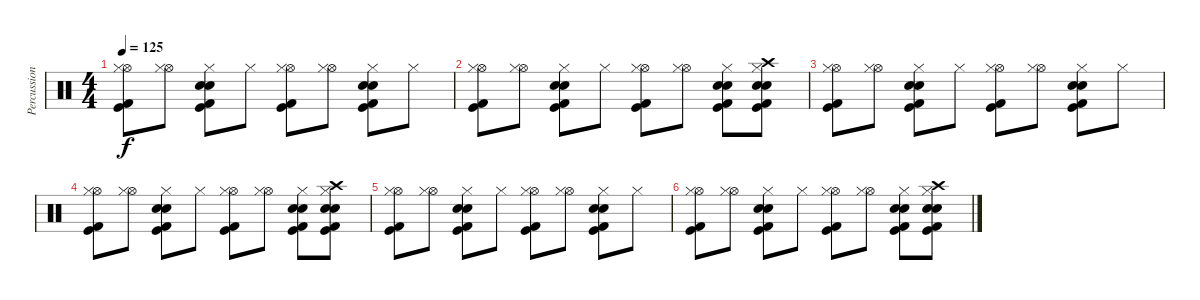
\track ("Percussion" "Percussion") {instrument percussion}
\staff {score}
\articulation defaults
\ts (4 4)
\tempo 125
\clef neutral
\ks c
("Hi-Hat (open)" "Kick (hit)" "Kick (hit) 2" "Hi-Hat (closed)").8{dy f} ("Hi-Hat (open)" "Hi-Hat (closed)").8 ("Electric Snare (hit)" "Electric Snare (hit)" "Kick (hit)" "Kick (hit) 2" "Hi-Hat (closed)").8 "Hi-Hat (closed)".8 ("Hi-Hat (open)" "Kick (hit)" "Kick (hit) 2" "Hi-Hat (closed)").8 ("Hi-Hat (open)" "Hi-Hat (closed)").8 ("Electric Snare (hit)" "Electric Snare (hit)" "Kick (hit)" "Kick (hit) 2" "Hi-Hat (closed)").8 "Hi-Hat (closed)".8 |
("Hi-Hat (open)" "Kick (hit)" "Kick (hit) 2" "Hi-Hat (closed)").8 ("Hi-Hat (open)" "Hi-Hat (closed)").8 ("Electric Snare (hit)" "Electric Snare (hit)" "Kick (hit)" "Kick (hit) 2" "Hi-Hat (closed)").8 "Hi-Hat (closed)".8 ("Hi-Hat (open)" "Kick (hit)" "Kick (hit) 2" "Hi-Hat (closed)").8 ("Hi-Hat (open)" "Hi-Hat (closed)").8 ("Electric Snare (hit)" "Electric Snare (hit)" "Kick (hit)" "Kick (hit) 2" "Hi-Hat (closed)").8 ("Crash high (hit)" "Electric Snare (hit)" "Electric Snare (hit)" "Kick (hit)" "Kick (hit) 2" "Hi-Hat (closed)").8 |
("Hi-Hat (open)" "Kick (hit)" "Kick (hit) 2" "Hi-Hat (closed)").8 ("Hi-Hat (open)" "Hi-Hat (closed)").8 ("Electric Snare (hit)" "Electric Snare (hit)" "Kick (hit)" "Kick (hit) 2" "Hi-Hat (closed)").8 "Hi-Hat (closed)".8 ("Hi-Hat (open)" "Kick (hit)" "Kick (hit) 2" "Hi-Hat (closed)").8 ("Hi-Hat (open)" "Hi-Hat (closed)").8 ("Electric Snare (hit)" "Electric Snare (hit)" "Kick (hit)" "Kick (hit) 2" "Hi-Hat (closed)").8 "Hi-Hat (closed)".8 |
("Hi-Hat (open)" "Kick (hit)" "Kick (hit) 2" "Hi-Hat (closed)").8 ("Hi-Hat (open)" "Hi-Hat (closed)").8 ("Electric Snare (hit)" "Electric Snare (hit)" "Kick (hit)" "Kick (hit) 2" "Hi-Hat (closed)").8 "Hi-Hat (closed)".8 ("Hi-Hat (open)" "Kick (hit)" "Kick (hit) 2" "Hi-Hat (closed)").8 ("Hi-Hat (open)" "Hi-Hat (closed)").8 ("Electric Snare (hit)" "Electric Snare (hit)" "Kick (hit)" "Kick (hit) 2" "Hi-Hat (closed)").8 ("Crash high (hit)" "Electric Snare (hit)" "Electric Snare (hit)" "Kick (hit)" "Kick (hit) 2" "Hi-Hat (closed)").8 |
("Hi-Hat (open)" "Kick (hit)" "Kick (hit) 2" "Hi-Hat (closed)").8 ("Hi-Hat (open)" "Hi-Hat (closed)").8 ("Electric Snare (hit)" "Electric Snare (hit)" "Kick (hit)" "Kick (hit) 2" "Hi-Hat (closed)").8 "Hi-Hat (closed)".8 ("Hi-Hat (open)" "Kick (hit)" "Kick (hit) 2" "Hi-Hat (closed)").8 ("Hi-Hat (open)" "Hi-Hat (closed)").8 ("Electric Snare (hit)" "Electric Snare (hit)" "Kick (hit)" "Kick (hit) 2" "Hi-Hat (closed)").8 "Hi-Hat (closed)".8 |
("Hi-Hat (open)" "Kick (hit)" "Kick (hit) 2" "Hi-Hat (closed)").8 ("Hi-Hat (open)" "Hi-Hat (closed)").8 ("Electric Snare (hit)" "Electric Snare (hit)" "Kick (hit)" "Kick (hit) 2" "Hi-Hat (closed)").8 "Hi-Hat (closed)".8 ("Hi-Hat (open)" "Kick (hit)" "Kick (hit) 2" "Hi-Hat (closed)").8 ("Hi-Hat (open)" "Hi-Hat (closed)").8 ("Electric Snare (hit)" "Electric Snare (hit)" "Kick (hit)" "Kick (hit) 2" "Hi-Hat (closed)").8 ("Crash high (hit)" "Electric Snare (hit)" "Electric Snare (hit)" "Kick (hit)" "Kick (hit) 2" "Hi-Hat (closed)").8
